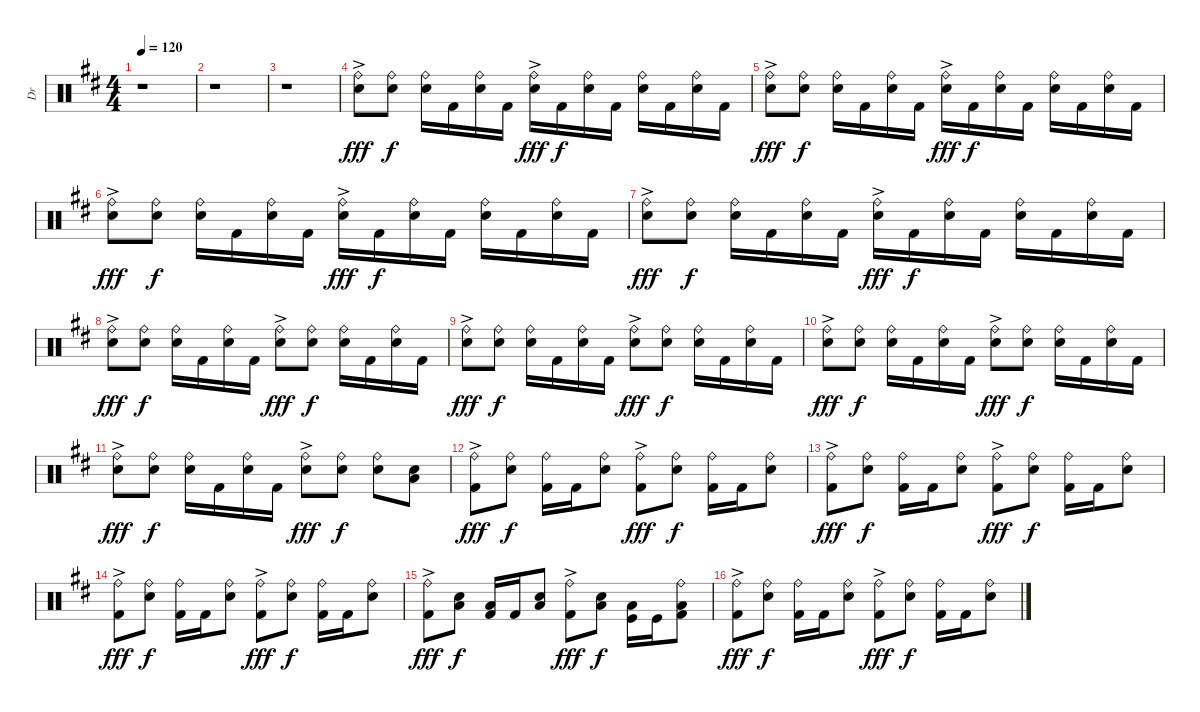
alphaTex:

\track ("Dr" "Dr") {instrument percussion}
\staff {score}
\articulation defaults
\ts (4 4)
\tempo 120
\clef neutral
\ks d
r.1{dy f} |
r.1 |
r.1 |
("Ride (bell)"{ac} "Electric Snare (hit)"{ac}).8{dy fff} ("Ride (bell)" "Electric Snare (hit)").8{dy f} ("Ride (bell)" "Electric Snare (hit)").16 "Kick (hit) 2".16 ("Ride (bell)" "Electric Snare (hit)").16 "Kick (hit) 2".16 ("Ride (bell)"{ac} "Electric Snare (hit)"{ac}).16{dy fff} "Kick (hit) 2".16{dy f} ("Ride (bell)" "Electric Snare (hit)").16 "Kick (hit) 2".16 ("Ride (bell)" "Electric Snare (hit)").16 "Kick (hit) 2".16 ("Ride (bell)" "Electric Snare (hit)").16 "Kick (hit) 2".16 |
("Ride (bell)"{ac} "Electric Snare (hit)"{ac}).8{dy fff} ("Ride (bell)" "Electric Snare (hit)").8{dy f} ("Ride (bell)" "Electric Snare (hit)").16 "Kick (hit) 2".16 ("Ride (bell)" "Electric Snare (hit)").16 "Kick (hit) 2".16 ("Ride (bell)"{ac} "Electric Snare (hit)"{ac}).16{dy fff} "Kick (hit) 2".16{dy f} ("Ride (bell)" "Electric Snare (hit)").16 "Kick (hit) 2".16 ("Ride (bell)" "Electric Snare (hit)").16 "Kick (hit) 2".16 ("Ride (bell)" "Electric Snare (hit)").16 "Kick (hit) 2".16 |
("Ride (bell)"{ac} "Electric Snare (hit)"{ac}).8{dy fff} ("Ride (bell)" "Electric Snare (hit)").8{dy f} ("Ride (bell)" "Electric Snare (hit)").16 "Kick (hit) 2".16 ("Ride (bell)" "Electric Snare (hit)").16 "Kick (hit) 2".16 ("Ride (bell)"{ac} "Electric Snare (hit)"{ac}).16{dy fff} "Kick (hit) 2".16{dy f} ("Ride (bell)" "Electric Snare (hit)").16 "Kick (hit) 2".16 ("Ride (bell)" "Electric Snare (hit)").16 "Kick (hit) 2".16 ("Ride (bell)" "Electric Snare (hit)").16 "Kick (hit) 2".16 |
("Ride (bell)"{ac} "Electric Snare (hit)"{ac}).8{dy fff} ("Ride (bell)" "Electric Snare (hit)").8{dy f} ("Ride (bell)" "Electric Snare (hit)").16 "Kick (hit) 2".16 ("Ride (bell)" "Electric Snare (hit)").16 "Kick (hit) 2".16 ("Ride (bell)"{ac} "Electric Snare (hit)"{ac}).16{dy fff} "Kick (hit) 2".16{dy f} ("Ride (bell)" "Electric Snare (hit)").16 "Kick (hit) 2".16 ("Ride (bell)" "Electric Snare (hit)").16 "Kick (hit) 2".16 ("Ride (bell)" "Electric Snare (hit)").16 "Kick (hit) 2".16 |
("Ride (bell)"{ac} "Electric Snare (hit)"{ac}).8{dy fff} ("Ride (bell)" "Electric Snare (hit)").8{dy f} ("Ride (bell)" "Electric Snare (hit)").16 "Kick (hit) 2".16 ("Ride (bell)" "Electric Snare (hit)").16 "Kick (hit) 2".16 ("Ride (bell)"{ac} "Electric Snare (hit)"{ac}).8{dy fff} ("Ride (bell)" "Electric Snare (hit)").8{dy f} ("Ride (bell)" "Electric Snare (hit)").16 "Kick (hit) 2".16 ("Ride (bell)" "Electric Snare (hit)").16 "Kick (hit) 2".16 |
("Ride (bell)"{ac} "Electric Snare (hit)"{ac}).8{dy fff} ("Ride (bell)" "Electric Snare (hit)").8{dy f} ("Ride (bell)" "Electric Snare (hit)").16 "Kick (hit) 2".16 ("Ride (bell)" "Electric Snare (hit)").16 "Kick (hit) 2".16 ("Ride (bell)"{ac} "Electric Snare (hit)"{ac}).8{dy fff} ("Ride (bell)" "Electric Snare (hit)").8{dy f} ("Ride (bell)" "Electric Snare (hit)").16 "Kick (hit) 2".16 ("Ride (bell)" "Electric Snare (hit)").16 "Kick (hit) 2".16 |
("Ride (bell)"{ac} "Electric Snare (hit)"{ac}).8{dy fff} ("Ride (bell)" "Electric Snare (hit)").8{dy f} ("Ride (bell)" "Electric Snare (hit)").16 "Kick (hit) 2".16 ("Ride (bell)" "Electric Snare (hit)").16 "Kick (hit) 2".16 ("Ride (bell)"{ac} "Electric Snare (hit)"{ac}).8{dy fff} ("Ride (bell)" "Electric Snare (hit)").8{dy f} ("Ride (bell)" "Electric Snare (hit)").16 "Kick (hit) 2".16 ("Ride (bell)" "Electric Snare (hit)").16 "Kick (hit) 2".16 |
("Ride (bell)"{ac} "Electric Snare (hit)"{ac}).8{dy fff} ("Ride (bell)" "Electric Snare (hit)").8{dy f} ("Ride (bell)" "Electric Snare (hit)").16 "Kick (hit) 2".16 ("Ride (bell)" "Electric Snare (hit)").16 "Kick (hit) 2".16 ("Ride (bell)"{ac} "Electric Snare (hit)"{ac}).8{dy fff} ("Ride (bell)" "Electric Snare (hit)").8{dy f} ("Ride (bell)" "Electric Snare (hit)").8 ("Electric Snare (hit)" "Low Tom (hit)").8 |
("Ride (bell)"{ac} "Kick (hit) 2"{ac}).8{dy fff} ("Ride (bell)" "Electric Snare (hit)").8{dy f} ("Ride (bell)" "Kick (hit) 2").16 "Kick (hit) 2".16 ("Ride (bell)" "Electric Snare (hit)").8 ("Ride (bell)"{ac} "Kick (hit) 2"{ac}).8{dy fff} ("Ride (bell)" "Electric Snare (hit)").8{dy f} ("Ride (bell)" "Kick (hit) 2").16 "Kick (hit) 2".16 ("Ride (bell)" "Electric Snare (hit)").8 |
("Ride (bell)"{ac} "Kick (hit) 2"{ac}).8{dy fff} ("Ride (bell)" "Electric Snare (hit)").8{dy f} ("Ride (bell)" "Kick (hit) 2").16 "Kick (hit) 2".16 ("Ride (bell)" "Electric Snare (hit)").8 ("Ride (bell)"{ac} "Kick (hit) 2"{ac}).8{dy fff} ("Ride (bell)" "Electric Snare (hit)").8{dy f} ("Ride (bell)" "Kick (hit) 2").16 "Kick (hit) 2".16 ("Ride (bell)" "Electric Snare (hit)").8 |
("Ride (bell)"{ac} "Kick (hit) 2"{ac}).8{dy fff} ("Ride (bell)" "Electric Snare (hit)").8{dy f} ("Ride (bell)" "Kick (hit) 2").16 "Kick (hit) 2".16 ("Ride (bell)" "Electric Snare (hit)").8 ("Ride (bell)"{ac} "Kick (hit) 2"{ac}).8{dy fff} ("Ride (bell)" "Electric Snare (hit)").8{dy f} ("Ride (bell)" "Kick (hit) 2").16 "Kick (hit) 2".16 ("Ride (bell)" "Electric Snare (hit)").8 |
("Ride (bell)"{ac} "Kick (hit) 2").8{dy fff} ("Electric Snare (hit)" "Low Tom (hit)").8{dy f} ("Low Tom (hit)" "Kick (hit) 2").16 "Kick (hit) 2".16 ("Electric Snare (hit)" "Low Tom (hit)").8 ("Ride (bell)"{ac} "Kick (hit) 2"{ac}).8{dy fff} ("Electric Snare (hit)" "Low Tom (hit)").8{dy f} ("Low Tom (hit)" "Kick (hit)").16 "Kick (hit)".16 ("Ride (bell)" "Kick (hit) 2" "Low Tom (hit)").8 |
("Ride (bell)"{ac} "Kick (hit) 2"{ac}).8{dy fff} ("Ride (bell)" "Electric Snare (hit)").8{dy f} ("Ride (bell)" "Kick (hit) 2").16 "Kick (hit) 2".16 ("Ride (bell)" "Electric Snare (hit)").8 ("Ride (bell)"{ac} "Kick (hit) 2"{ac}).8{dy fff} ("Ride (bell)" "Electric Snare (hit)").8{dy f} ("Ride (bell)" "Kick (hit) 2").16 "Kick (hit) 2".16 ("Ride (bell)" "Electric Snare (hit)").8
